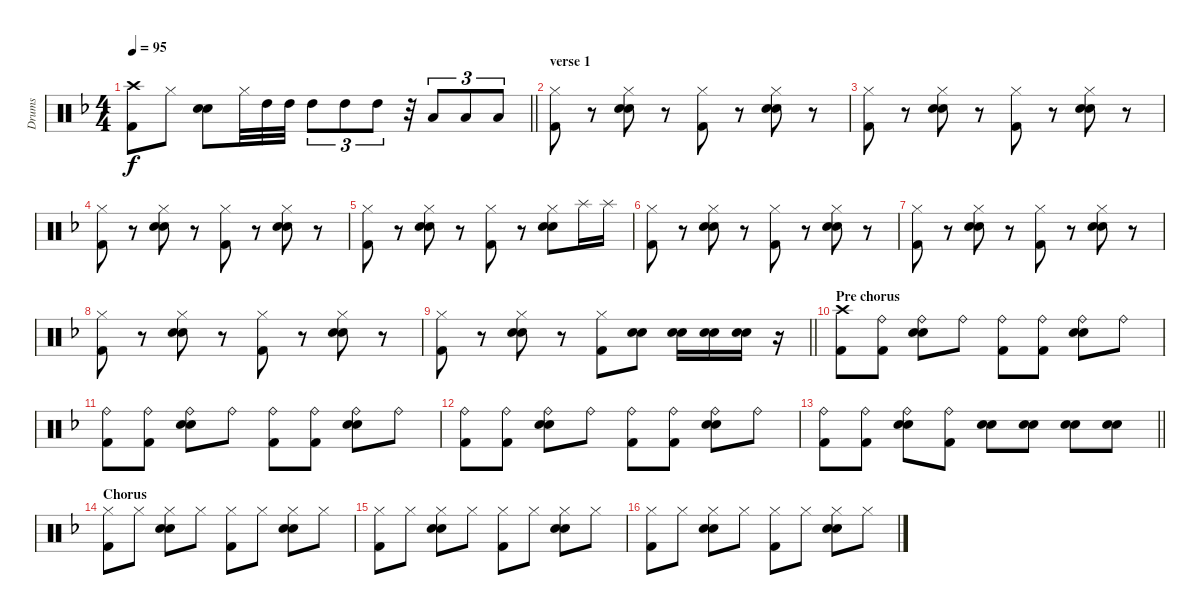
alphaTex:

\track ("Drums" "Drums") {instrument percussion}
\staff {score}
\articulation defaults
\ts (4 4)
\tempo 95
\clef neutral
\barLineRight lightlight
\ks dminor
("Crash high (hit)" "Kick (hit) 2").8{dy f} "Hi-Hat (closed)".8 ("Snare (hit) 2" "Electric Snare (hit)").8 "Hi-Hat (closed)".32 "High Tom (hit)".32 "High Tom (hit)".32 "High Tom (hit)".8{tu (3 2)} "High Tom (hit)".8{tu (3 2)} "High Tom (hit)".8{tu (3 2)} r.32 "Low Tom (hit)".8{tu (3 2)} "Low Tom (hit)".8{tu (3 2)} "Low Tom (hit)".8{tu (3 2)} |
\section ("" "verse 1")
("Hi-Hat (closed)" "Kick (hit) 2").8 r.8 ("Hi-Hat (closed)" "Snare (hit) 2" "Electric Snare (hit)").8 r.8 ("Hi-Hat (closed)" "Kick (hit) 2").8 r.8 ("Hi-Hat (closed)" "Snare (hit) 2" "Electric Snare (hit)").8 r.8 |
("Hi-Hat (closed)" "Kick (hit) 2").8 r.8 ("Hi-Hat (closed)" "Snare (hit) 2" "Electric Snare (hit)").8 r.8 ("Hi-Hat (closed)" "Kick (hit) 2").8 r.8 ("Hi-Hat (closed)" "Snare (hit) 2" "Electric Snare (hit)").8 r.8 |
("Hi-Hat (closed)" "Kick (hit) 2").8 r.8 ("Hi-Hat (closed)" "Snare (hit) 2" "Electric Snare (hit)").8 r.8 ("Hi-Hat (closed)" "Kick (hit) 2").8 r.8 ("Hi-Hat (closed)" "Snare (hit) 2" "Electric Snare (hit)").8 r.8 |
("Hi-Hat (closed)" "Kick (hit) 2").8 r.8 ("Hi-Hat (closed)" "Snare (hit) 2" "Electric Snare (hit)").8 r.8 ("Hi-Hat (closed)" "Kick (hit) 2").8 r.8 ("Hi-Hat (closed)" "Snare (hit) 2" "Electric Snare (hit)").8 "Splash (hit)".16 "Splash (hit)".16 |
("Hi-Hat (closed)" "Kick (hit) 2").8 r.8 ("Hi-Hat (closed)" "Snare (hit) 2" "Electric Snare (hit)").8 r.8 ("Hi-Hat (closed)" "Kick (hit) 2").8 r.8 ("Hi-Hat (closed)" "Snare (hit) 2" "Electric Snare (hit)").8 r.8 |
("Hi-Hat (closed)" "Kick (hit) 2").8 r.8 ("Hi-Hat (closed)" "Snare (hit) 2" "Electric Snare (hit)").8 r.8 ("Hi-Hat (closed)" "Kick (hit) 2").8 r.8 ("Hi-Hat (closed)" "Snare (hit) 2" "Electric Snare (hit)").8 r.8 |
("Hi-Hat (closed)" "Kick (hit) 2").8 r.8 ("Hi-Hat (closed)" "Snare (hit) 2" "Electric Snare (hit)").8 r.8 ("Hi-Hat (closed)" "Kick (hit) 2").8 r.8 ("Hi-Hat (closed)" "Snare (hit) 2" "Electric Snare (hit)").8 r.8 |
\barLineRight lightlight
("Hi-Hat (closed)" "Kick (hit) 2").8 r.8 ("Hi-Hat (closed)" "Snare (hit) 2" "Electric Snare (hit)").8 r.8 ("Hi-Hat (closed)" "Kick (hit) 2").8 ("Snare (hit) 2" "Electric Snare (hit)").8 ("Snare (hit) 2" "Electric Snare (hit)").16 ("Snare (hit) 2" "Electric Snare (hit)").16 ("Snare (hit) 2" "Electric Snare (hit)").16 r.16 |
\section ("" "Pre chorus")
("Crash high (hit)" "Kick (hit) 2").8 ("Ride (bell)" "Kick (hit) 2").8 ("Ride (bell)" "Snare (hit) 2" "Electric Snare (hit)").8 "Ride (bell)".8 ("Ride (bell)" "Kick (hit) 2").8 ("Ride (bell)" "Kick (hit) 2").8 ("Ride (bell)" "Snare (hit) 2" "Electric Snare (hit)").8 "Ride (bell)".8 |
("Ride (bell)" "Kick (hit) 2").8 ("Ride (bell)" "Kick (hit) 2").8 ("Ride (bell)" "Snare (hit) 2" "Electric Snare (hit)").8 "Ride (bell)".8 ("Ride (bell)" "Kick (hit) 2").8 ("Ride (bell)" "Kick (hit) 2").8 ("Ride (bell)" "Snare (hit) 2" "Electric Snare (hit)").8 "Ride (bell)".8 |
("Ride (bell)" "Kick (hit) 2").8 ("Ride (bell)" "Kick (hit) 2").8 ("Ride (bell)" "Snare (hit) 2" "Electric Snare (hit)").8 "Ride (bell)".8 ("Ride (bell)" "Kick (hit) 2").8 ("Ride (bell)" "Kick (hit) 2").8 ("Ride (bell)" "Snare (hit) 2" "Electric Snare (hit)").8 "Ride (bell)".8 |
\barLineRight lightlight
("Ride (bell)" "Kick (hit) 2").8 ("Ride (bell)" "Kick (hit) 2").8 ("Ride (bell)" "Snare (hit) 2" "Electric Snare (hit)").8 ("Ride (bell)" "Kick (hit) 2").8 ("Snare (hit) 2" "Electric Snare (hit)").8 ("Snare (hit) 2" "Electric Snare (hit)").8 ("Snare (hit) 2" "Electric Snare (hit)").8 ("Snare (hit) 2" "Electric Snare (hit)").8 |
\section ("" "Chorus")
("Hi-Hat (closed)" "Kick (hit) 2").8 "Hi-Hat (closed)".8 ("Hi-Hat (closed)" "Snare (hit) 2" "Electric Snare (hit)").8 "Hi-Hat (closed)".8 ("Hi-Hat (closed)" "Kick (hit) 2").8 "Hi-Hat (closed)".8 ("Hi-Hat (closed)" "Snare (hit) 2" "Electric Snare (hit)").8 "Hi-Hat (closed)".8 |
("Hi-Hat (closed)" "Kick (hit) 2").8 "Hi-Hat (closed)".8 ("Hi-Hat (closed)" "Snare (hit) 2" "Electric Snare (hit)").8 "Hi-Hat (closed)".8 ("Hi-Hat (closed)" "Kick (hit) 2").8 "Hi-Hat (closed)".8 ("Hi-Hat (closed)" "Snare (hit) 2" "Electric Snare (hit)").8 "Hi-Hat (closed)".8 |
("Hi-Hat (closed)" "Kick (hit) 2").8 "Hi-Hat (closed)".8 ("Hi-Hat (closed)" "Snare (hit) 2" "Electric Snare (hit)").8 "Hi-Hat (closed)".8 ("Hi-Hat (closed)" "Kick (hit) 2").8 "Hi-Hat (closed)".8 ("Hi-Hat (closed)" "Snare (hit) 2" "Electric Snare (hit)").8 "Hi-Hat (closed)".8
